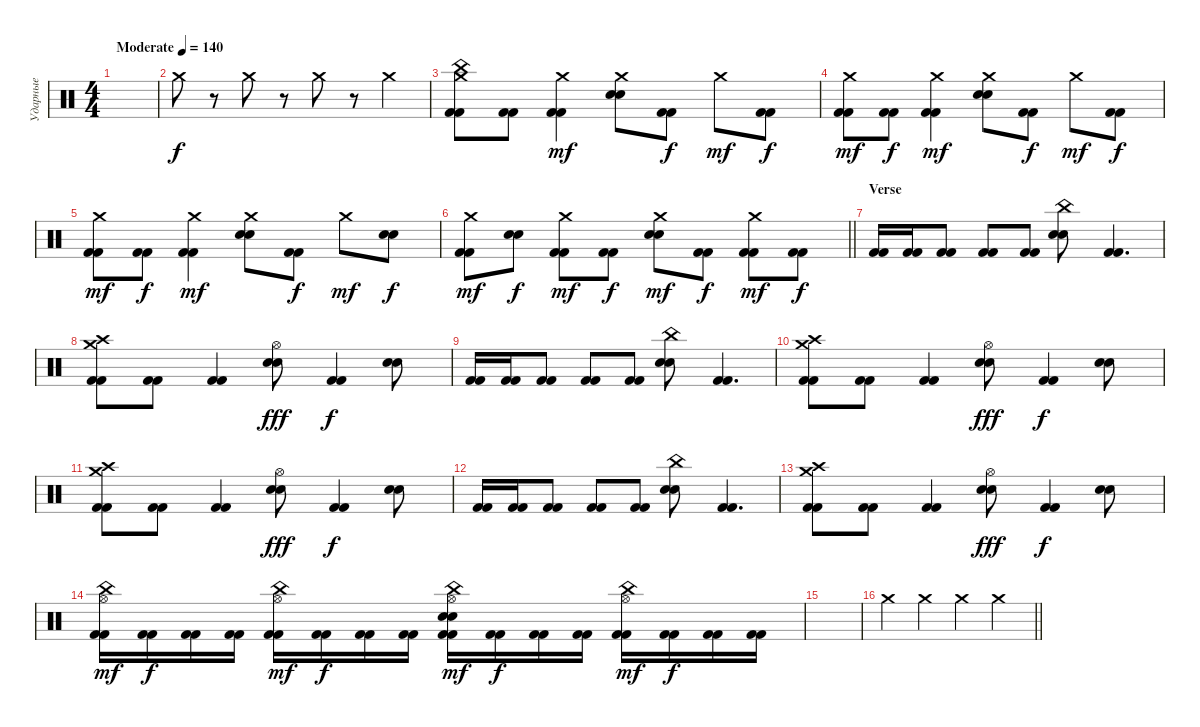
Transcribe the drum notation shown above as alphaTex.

\track ("Ударные" "Ударные") {instrument percussion}
\staff {score}
\articulation defaults
\ts (4 4)
\tempo (140 "Moderate")
\clef neutral
\ks c
|
"Crash medium (hit)".8 r.8 "Crash medium (hit)".8 r.8 "Crash medium (hit)".8 r.8 "Crash medium (hit)".4 |
("Crash medium (hit)" "China (hit)" "Kick (hit) 2" "Kick (hit) 2").8{dy f} ("Kick (hit) 2" "Kick (hit) 2").8 ("Crash medium (hit)" "Kick (hit) 2" "Kick (hit) 2").4{dy mf} ("Crash medium (hit)" "Electric Snare (hit)" "Electric Snare (hit)").8 ("Kick (hit) 2" "Kick (hit) 2").8{dy f} "Crash medium (hit)".8{dy mf} ("Kick (hit) 2" "Kick (hit) 2").8{dy f} |
("Crash medium (hit)" "Kick (hit) 2" "Kick (hit) 2").8{dy mf} ("Kick (hit) 2" "Kick (hit) 2").8{dy f} ("Crash medium (hit)" "Kick (hit) 2" "Kick (hit) 2").4{dy mf} ("Crash medium (hit)" "Electric Snare (hit)" "Electric Snare (hit)").8 ("Kick (hit) 2" "Kick (hit) 2").8{dy f} "Crash medium (hit)".8{dy mf} ("Kick (hit) 2" "Kick (hit) 2").8{dy f} |
("Crash medium (hit)" "Kick (hit) 2" "Kick (hit) 2").8{dy mf} ("Kick (hit) 2" "Kick (hit) 2").8{dy f} ("Crash medium (hit)" "Kick (hit) 2" "Kick (hit) 2").4{dy mf} ("Crash medium (hit)" "Electric Snare (hit)" "Electric Snare (hit)").8 ("Kick (hit) 2" "Kick (hit) 2").8{dy f} "Crash medium (hit)".8{dy mf} ("Electric Snare (hit)" "Electric Snare (hit)").8{dy f} |
\barLineRight lightlight
("Crash medium (hit)" "Kick (hit) 2" "Kick (hit) 2").8{dy mf} ("Electric Snare (hit)" "Electric Snare (hit)").8{dy f} ("Crash medium (hit)" "Kick (hit) 2" "Kick (hit) 2").8{dy mf} ("Kick (hit) 2" "Kick (hit) 2").8{dy f} ("Crash medium (hit)" "Electric Snare (hit)" "Electric Snare (hit)").8{dy mf} ("Kick (hit) 2" "Kick (hit) 2").8{dy f} ("Crash medium (hit)" "Kick (hit) 2" "Kick (hit) 2").8{dy mf} ("Kick (hit) 2" "Kick (hit) 2").8{dy f} |
\section ("" "Verse")
("Kick (hit) 2" "Kick (hit) 2").16 ("Kick (hit) 2" "Kick (hit) 2").16 ("Kick (hit) 2" "Kick (hit) 2").8 ("Kick (hit) 2" "Kick (hit) 2").8 ("Kick (hit) 2" "Kick (hit) 2").8 ("China (hit)" "Electric Snare (hit)" "Electric Snare (hit)").8 ("Kick (hit) 2" "Kick (hit) 2").4{d} |
("Crash medium (hit)" "Crash high (hit)" "Kick (hit) 2" "Kick (hit) 2").8 ("Kick (hit) 2" "Kick (hit) 2").8 ("Kick (hit) 2" "Kick (hit) 2").4 ("Hi-Hat (open)" "Electric Snare (hit)" "Electric Snare (hit)").8{dy fff} ("Kick (hit) 2" "Kick (hit) 2").4{dy f} ("Electric Snare (hit)" "Electric Snare (hit)").8 |
("Kick (hit) 2" "Kick (hit) 2").16 ("Kick (hit) 2" "Kick (hit) 2").16 ("Kick (hit) 2" "Kick (hit) 2").8 ("Kick (hit) 2" "Kick (hit) 2").8 ("Kick (hit) 2" "Kick (hit) 2").8 ("China (hit)" "Electric Snare (hit)" "Electric Snare (hit)").8 ("Kick (hit) 2" "Kick (hit) 2").4{d} |
("Crash medium (hit)" "Crash high (hit)" "Kick (hit) 2" "Kick (hit) 2").8 ("Kick (hit) 2" "Kick (hit) 2").8 ("Kick (hit) 2" "Kick (hit) 2").4 ("Hi-Hat (open)" "Electric Snare (hit)" "Electric Snare (hit)").8{dy fff} ("Kick (hit) 2" "Kick (hit) 2").4{dy f} ("Electric Snare (hit)" "Electric Snare (hit)").8 |
("Crash medium (hit)" "Crash high (hit)" "Kick (hit) 2" "Kick (hit) 2").8 ("Kick (hit) 2" "Kick (hit) 2").8 ("Kick (hit) 2" "Kick (hit) 2").4 ("Hi-Hat (open)" "Electric Snare (hit)" "Electric Snare (hit)").8{dy fff} ("Kick (hit) 2" "Kick (hit) 2").4{dy f} ("Electric Snare (hit)" "Electric Snare (hit)").8 |
("Kick (hit) 2" "Kick (hit) 2").16 ("Kick (hit) 2" "Kick (hit) 2").16 ("Kick (hit) 2" "Kick (hit) 2").8 ("Kick (hit) 2" "Kick (hit) 2").8 ("Kick (hit) 2" "Kick (hit) 2").8 ("China (hit)" "Electric Snare (hit)" "Electric Snare (hit)").8 ("Kick (hit) 2" "Kick (hit) 2").4{d} |
("Crash medium (hit)" "Crash high (hit)" "Kick (hit) 2" "Kick (hit) 2").8 ("Kick (hit) 2" "Kick (hit) 2").8 ("Kick (hit) 2" "Kick (hit) 2").4 ("Hi-Hat (open)" "Electric Snare (hit)" "Electric Snare (hit)").8{dy fff} ("Kick (hit) 2" "Kick (hit) 2").4{dy f} ("Electric Snare (hit)" "Electric Snare (hit)").8 |
("China (hit)" "Hi-Hat (open)" "Kick (hit) 2" "Kick (hit) 2").16{dy mf} ("Kick (hit) 2" "Kick (hit) 2").16{dy f} ("Kick (hit) 2" "Kick (hit) 2").16 ("Kick (hit) 2" "Kick (hit) 2").16 ("China (hit)" "Hi-Hat (open)" "Kick (hit) 2" "Kick (hit) 2").16{dy mf} ("Kick (hit) 2" "Kick (hit) 2").16{dy f} ("Kick (hit) 2" "Kick (hit) 2").16 ("Kick (hit) 2" "Kick (hit) 2").16 ("China (hit)" "Hi-Hat (open)" "Electric Snare (hit)" "Electric Snare (hit)" "Kick (hit) 2" "Kick (hit) 2").16{dy mf} ("Kick (hit) 2" "Kick (hit) 2").16{dy f} ("Kick (hit) 2" "Kick (hit) 2").16 ("Kick (hit) 2" "Kick (hit) 2").16 ("China (hit)" "Hi-Hat (open)" "Kick (hit) 2" "Kick (hit) 2").16{dy mf} ("Kick (hit) 2" "Kick (hit) 2").16{dy f} ("Kick (hit) 2" "Kick (hit) 2").16 ("Kick (hit) 2" "Kick (hit) 2").16 |
|
\barLineRight lightlight "Crash medium (hit)".4 "Crash medium (hit)".4 "Crash medium (hit)".4 "Crash medium (hit)".4
